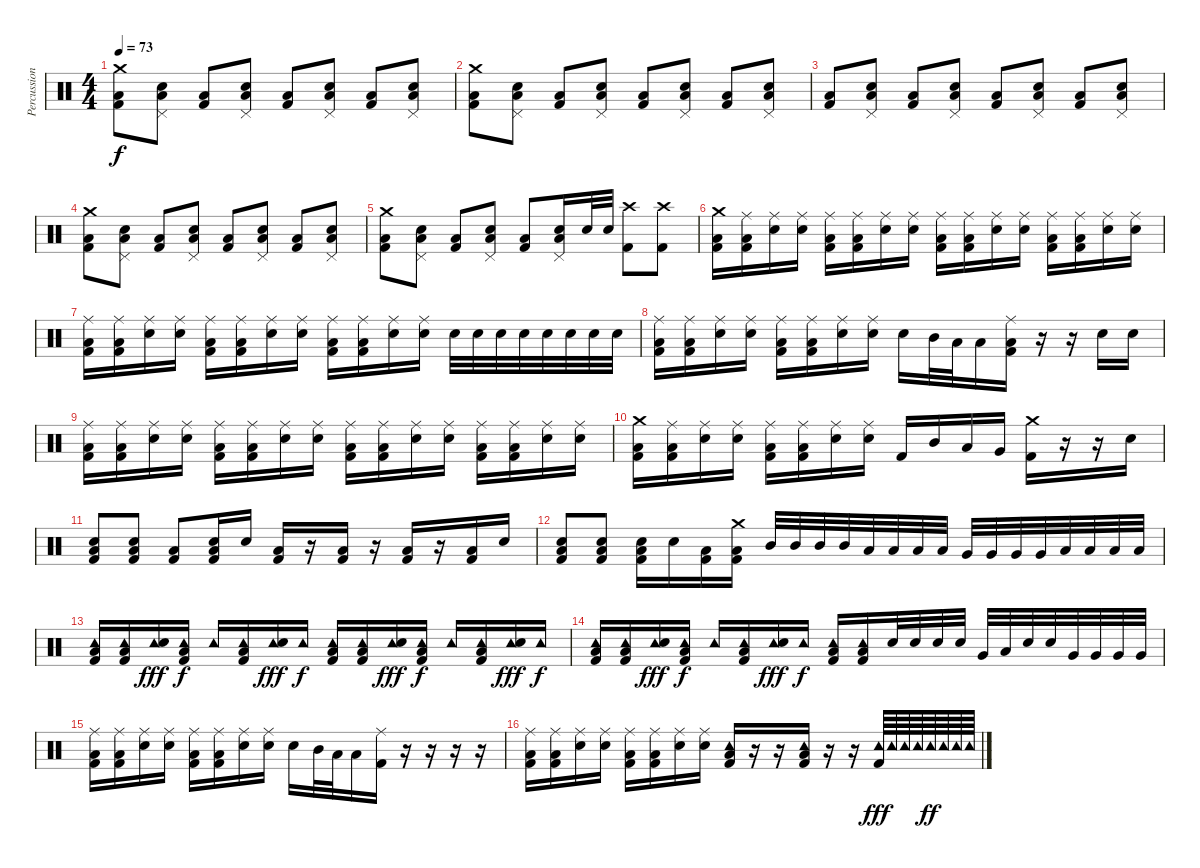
\track ("Percussion" "Percussion") {instrument percussion}
\staff {score}
\articulation defaults
\ts (4 4)
\tempo 73
\clef neutral
\ks c
("Crash medium (hit)" "Kick (hit) 2" "Low Floor Tom (hit)").8{dy f} ("Pedal Hi-Hat (hit)" "Snare (hit) 2" "Low Floor Tom (hit)").8 ("Kick (hit) 2" "Low Floor Tom (hit)").8 ("Pedal Hi-Hat (hit)" "Snare (hit) 2" "Low Floor Tom (hit)").8 ("Kick (hit) 2" "Low Floor Tom (hit)").8 ("Pedal Hi-Hat (hit)" "Snare (hit) 2" "Low Floor Tom (hit)").8 ("Kick (hit) 2" "Low Floor Tom (hit)").8 ("Pedal Hi-Hat (hit)" "Snare (hit) 2" "Low Floor Tom (hit)").8 |
("Crash medium (hit)" "Kick (hit) 2" "Low Floor Tom (hit)").8 ("Pedal Hi-Hat (hit)" "Snare (hit) 2" "Low Floor Tom (hit)").8 ("Kick (hit) 2" "Low Floor Tom (hit)").8 ("Pedal Hi-Hat (hit)" "Snare (hit) 2" "Low Floor Tom (hit)").8 ("Kick (hit) 2" "Low Floor Tom (hit)").8 ("Pedal Hi-Hat (hit)" "Snare (hit) 2" "Low Floor Tom (hit)").8 ("Kick (hit) 2" "Low Floor Tom (hit)").8 ("Pedal Hi-Hat (hit)" "Snare (hit) 2" "Low Floor Tom (hit)").8 |
("Kick (hit) 2" "Low Floor Tom (hit)").8 ("Pedal Hi-Hat (hit)" "Snare (hit) 2" "Low Floor Tom (hit)").8 ("Kick (hit) 2" "Low Floor Tom (hit)").8 ("Pedal Hi-Hat (hit)" "Snare (hit) 2" "Low Floor Tom (hit)").8 ("Kick (hit) 2" "Low Floor Tom (hit)").8 ("Pedal Hi-Hat (hit)" "Snare (hit) 2" "Low Floor Tom (hit)").8 ("Kick (hit) 2" "Low Floor Tom (hit)").8 ("Pedal Hi-Hat (hit)" "Snare (hit) 2" "Low Floor Tom (hit)").8 |
("Crash medium (hit)" "Kick (hit) 2" "Low Floor Tom (hit)").8 ("Pedal Hi-Hat (hit)" "Snare (hit) 2" "Low Floor Tom (hit)").8 ("Kick (hit) 2" "Low Floor Tom (hit)").8 ("Pedal Hi-Hat (hit)" "Snare (hit) 2" "Low Floor Tom (hit)").8 ("Kick (hit) 2" "Low Floor Tom (hit)").8 ("Pedal Hi-Hat (hit)" "Snare (hit) 2" "Low Floor Tom (hit)").8 ("Kick (hit) 2" "Low Floor Tom (hit)").8 ("Pedal Hi-Hat (hit)" "Snare (hit) 2" "Low Floor Tom (hit)").8 |
("Crash medium (hit)" "Kick (hit) 2" "Low Floor Tom (hit)").8 ("Pedal Hi-Hat (hit)" "Snare (hit) 2" "Low Floor Tom (hit)").8 ("Kick (hit) 2" "Low Floor Tom (hit)").8 ("Pedal Hi-Hat (hit)" "Snare (hit) 2" "Low Floor Tom (hit)").8 ("Kick (hit) 2" "Low Floor Tom (hit)").8 ("Pedal Hi-Hat (hit)" "Snare (hit) 2" "Low Floor Tom (hit)").16 "Snare (hit) 2".32 "Snare (hit) 2".32 ("Crash high (hit)" "Kick (hit) 2").8 ("Crash high (hit)" "Kick (hit) 2").8 |
("Crash medium (hit)" "Kick (hit) 2" "Low Floor Tom (hit)").16 ("Ride (middle)" "Kick (hit) 2" "Low Floor Tom (hit)").16 ("Ride (middle)" "Snare (hit) 2").16 ("Ride (middle)" "Snare (hit) 2").16 ("Ride (middle)" "Kick (hit) 2" "Low Floor Tom (hit)").16 ("Ride (middle)" "Kick (hit) 2" "Low Floor Tom (hit)").16 ("Ride (middle)" "Snare (hit) 2").16 ("Ride (middle)" "Snare (hit) 2").16 ("Ride (middle)" "Kick (hit) 2" "Low Floor Tom (hit)").16 ("Ride (middle)" "Kick (hit) 2" "Low Floor Tom (hit)").16 ("Ride (middle)" "Snare (hit) 2").16 ("Ride (middle)" "Snare (hit) 2").16 ("Ride (middle)" "Kick (hit) 2" "Low Floor Tom (hit)").16 ("Ride (middle)" "Kick (hit) 2" "Low Floor Tom (hit)").16 ("Ride (middle)" "Snare (hit) 2").16 ("Ride (middle)" "Snare (hit) 2").16 |
("Ride (middle)" "Kick (hit) 2" "Low Floor Tom (hit)").16 ("Ride (middle)" "Kick (hit) 2" "Low Floor Tom (hit)").16 ("Ride (middle)" "Snare (hit) 2").16 ("Ride (middle)" "Snare (hit) 2").16 ("Ride (middle)" "Kick (hit) 2" "Low Floor Tom (hit)").16 ("Ride (middle)" "Kick (hit) 2" "Low Floor Tom (hit)").16 ("Ride (middle)" "Snare (hit) 2").16 ("Ride (middle)" "Snare (hit) 2").16 ("Ride (middle)" "Kick (hit) 2" "Low Floor Tom (hit)").16 ("Ride (middle)" "Kick (hit) 2" "Low Floor Tom (hit)").16 ("Ride (middle)" "Snare (hit) 2").16 ("Ride (middle)" "Snare (hit) 2").16 "Snare (hit) 2".32 "Snare (hit) 2".32 "Snare (hit) 2".32 "Snare (hit) 2".32 "Snare (hit) 2".32 "Snare (hit) 2".32 "Snare (hit) 2".32 "Snare (hit) 2".32 |
("Ride (middle)" "Kick (hit) 2" "Low Floor Tom (hit)").16 ("Ride (middle)" "Kick (hit) 2" "Low Floor Tom (hit)").16 ("Ride (middle)" "Snare (hit) 2").16 ("Ride (middle)" "Snare (hit) 2").16 ("Ride (middle)" "Kick (hit) 2" "Low Floor Tom (hit)").16 ("Ride (middle)" "Kick (hit) 2" "Low Floor Tom (hit)").16 ("Ride (middle)" "Snare (hit) 2").16 ("Ride (middle)" "Snare (hit) 2").16 "Snare (hit) 2".16 "Mid Tom (hit)".32 "Low Tom (hit)".32 "Low Floor Tom (hit)".16 ("Ride (middle)" "Kick (hit) 2" "Low Floor Tom (hit)").16 r.16 r.16 "Snare (hit) 2".16 "Snare (hit) 2".16 |
("Ride (middle)" "Kick (hit) 2" "Low Floor Tom (hit)").16 ("Ride (middle)" "Kick (hit) 2" "Low Floor Tom (hit)").16 ("Ride (middle)" "Snare (hit) 2").16 ("Ride (middle)" "Snare (hit) 2").16 ("Ride (middle)" "Kick (hit) 2" "Low Floor Tom (hit)").16 ("Ride (middle)" "Kick (hit) 2" "Low Floor Tom (hit)").16 ("Ride (middle)" "Snare (hit) 2").16 ("Ride (middle)" "Snare (hit) 2").16 ("Ride (middle)" "Kick (hit) 2" "Low Floor Tom (hit)").16 ("Ride (middle)" "Kick (hit) 2" "Low Floor Tom (hit)").16 ("Ride (middle)" "Snare (hit) 2").16 ("Ride (middle)" "Snare (hit) 2").16 ("Ride (middle)" "Kick (hit) 2" "Low Floor Tom (hit)").16 ("Ride (middle)" "Kick (hit) 2" "Low Floor Tom (hit)").16 ("Ride (middle)" "Snare (hit) 2").16 ("Ride (middle)" "Snare (hit) 2").16 |
("Crash medium (hit)" "Kick (hit) 2" "Low Floor Tom (hit)").16 ("Ride (middle)" "Kick (hit) 2" "Low Floor Tom (hit)").16 ("Ride (middle)" "Snare (hit) 2").16 ("Ride (middle)" "Snare (hit) 2").16 ("Ride (middle)" "Kick (hit) 2" "Low Floor Tom (hit)").16 ("Ride (middle)" "Kick (hit) 2" "Low Floor Tom (hit)").16 ("Ride (middle)" "Snare (hit) 2").16 ("Ride (middle)" "Snare (hit) 2").16 "Kick (hit) 2".16 "Mid Tom (hit)".16 "Low Tom (hit)".16 "Very Low Tom (hit)".16 ("Crash medium (hit)" "Kick (hit) 2").16 r.16 r.16 "Hand Clap (hit)".16 |
("Hand Clap (hit)" "Kick (hit) 2" "Low Floor Tom (hit)").8 ("Hand Clap (hit)" "Kick (hit) 2" "Low Floor Tom (hit)").8 ("Kick (hit) 2" "Low Floor Tom (hit)").8 ("Hand Clap (hit)" "Kick (hit) 2" "Low Floor Tom (hit)").16 "Hand Clap (hit)".16 ("Kick (hit) 2" "Low Floor Tom (hit)").16 r.16 ("Kick (hit) 2" "Low Floor Tom (hit)").16 r.16 ("Kick (hit) 2" "Low Floor Tom (hit)").16 r.16 ("Kick (hit) 2" "Low Floor Tom (hit)").16 "Hand Clap (hit)".16 |
("Hand Clap (hit)" "Kick (hit) 2" "Low Floor Tom (hit)").8 ("Hand Clap (hit)" "Kick (hit) 2" "Low Floor Tom (hit)").8 ("Snare (hit) 2" "Kick (hit) 2" "Low Floor Tom (hit)").16 "Snare (hit) 2".16 ("Kick (hit) 2" "Low Floor Tom (hit)").16 ("Crash medium (hit)" "Kick (hit) 2" "Low Floor Tom (hit)").16 "Mid Tom (hit)".32 "Mid Tom (hit)".32 "Mid Tom (hit)".32 "Mid Tom (hit)".32 "Low Tom (hit)".32 "Low Tom (hit)".32 "Low Tom (hit)".32 "Low Tom (hit)".32 "Very Low Tom (hit)".32 "Very Low Tom (hit)".32 "Very Low Tom (hit)".32 "Very Low Tom (hit)".32 "Low Floor Tom (hit)".32 "Low Floor Tom (hit)".32 "Low Floor Tom (hit)".32 "Low Floor Tom (hit)".32 |
("Tambourine (hit)" "Kick (hit) 2" "Low Floor Tom (hit)").16 ("Tambourine (hit)" "Kick (hit) 2" "Low Floor Tom (hit)").16 ("Tambourine (hit)" "Snare (hit) 2").16{dy fff} ("Tambourine (hit)" "Kick (hit) 2" "Low Floor Tom (hit)").16{dy f} "Tambourine (hit)".16 ("Tambourine (hit)" "Kick (hit) 2" "Low Floor Tom (hit)").16 ("Tambourine (hit)" "Snare (hit) 2").16{dy fff} "Tambourine (hit)".16{dy f} ("Tambourine (hit)" "Kick (hit) 2" "Low Floor Tom (hit)").16 ("Tambourine (hit)" "Kick (hit) 2" "Low Floor Tom (hit)").16 ("Tambourine (hit)" "Snare (hit) 2").16{dy fff} ("Tambourine (hit)" "Kick (hit) 2" "Low Floor Tom (hit)").16{dy f} "Tambourine (hit)".16 ("Tambourine (hit)" "Kick (hit) 2" "Low Floor Tom (hit)").16 ("Tambourine (hit)" "Snare (hit) 2").16{dy fff} "Tambourine (hit)".16{dy f} |
("Tambourine (hit)" "Kick (hit) 2" "Low Floor Tom (hit)").16 ("Tambourine (hit)" "Kick (hit) 2" "Low Floor Tom (hit)").16 ("Tambourine (hit)" "Snare (hit) 2").16{dy fff} ("Tambourine (hit)" "Kick (hit) 2" "Low Floor Tom (hit)").16{dy f} "Tambourine (hit)".16 ("Tambourine (hit)" "Kick (hit) 2" "Low Floor Tom (hit)").16 ("Tambourine (hit)" "Snare (hit) 2").16{dy fff} "Tambourine (hit)".16{dy f} ("Tambourine (hit)" "Kick (hit) 2" "Low Floor Tom (hit)").16 ("Tambourine (hit)" "Kick (hit) 2" "Low Floor Tom (hit)").16 "Snare (hit) 2".32 "Snare (hit) 2".32 "Snare (hit) 2".32 "Snare (hit) 2".32 "Very Low Tom (hit)".32 "Low Floor Tom (hit)".32 "Snare (hit) 2".32 "Snare (hit) 2".32 "Very Low Tom (hit)".32 "Very Low Tom (hit)".32 "Very Low Tom (hit)".32 "Very Low Tom (hit)".32 |
("Ride (middle)" "Kick (hit) 2" "Low Floor Tom (hit)").16 ("Ride (middle)" "Kick (hit) 2" "Low Floor Tom (hit)").16 ("Ride (middle)" "Snare (hit) 2").16 ("Ride (middle)" "Snare (hit) 2").16 ("Ride (middle)" "Kick (hit) 2" "Low Floor Tom (hit)").16 ("Ride (middle)" "Kick (hit) 2" "Low Floor Tom (hit)").16 ("Ride (middle)" "Snare (hit) 2").16 ("Ride (middle)" "Snare (hit) 2").16 "Snare (hit) 2".16 "Mid Tom (hit)".32 "Low Tom (hit)".32 "Low Floor Tom (hit)".16 ("Ride (middle)" "Kick (hit) 2").16 r.16 r.16 r.16 r.16 |
("Ride (middle)" "Kick (hit) 2" "Low Floor Tom (hit)").16 ("Ride (middle)" "Kick (hit) 2" "Low Floor Tom (hit)").16 ("Ride (middle)" "Snare (hit) 2").16 ("Ride (middle)" "Snare (hit) 2").16 ("Ride (middle)" "Kick (hit) 2" "Low Floor Tom (hit)").16 ("Ride (middle)" "Kick (hit) 2" "Low Floor Tom (hit)").16 ("Ride (middle)" "Snare (hit) 2").16 ("Ride (middle)" "Snare (hit) 2").16 ("Tambourine (hit)" "Kick (hit) 2" "Low Floor Tom (hit)").16 r.16 r.16 ("Tambourine (hit)" "Kick (hit) 2" "Low Floor Tom (hit)").16 r.16 r.16 ("Tambourine (hit)" "Kick (hit) 2").64{dy fff} "Tambourine (hit)".64 "Tambourine (hit)".64 "Tambourine (hit)".64 "Tambourine (hit)".64{dy ff} "Tambourine (hit)".64 "Tambourine (hit)".64 "Tambourine (hit)".64
